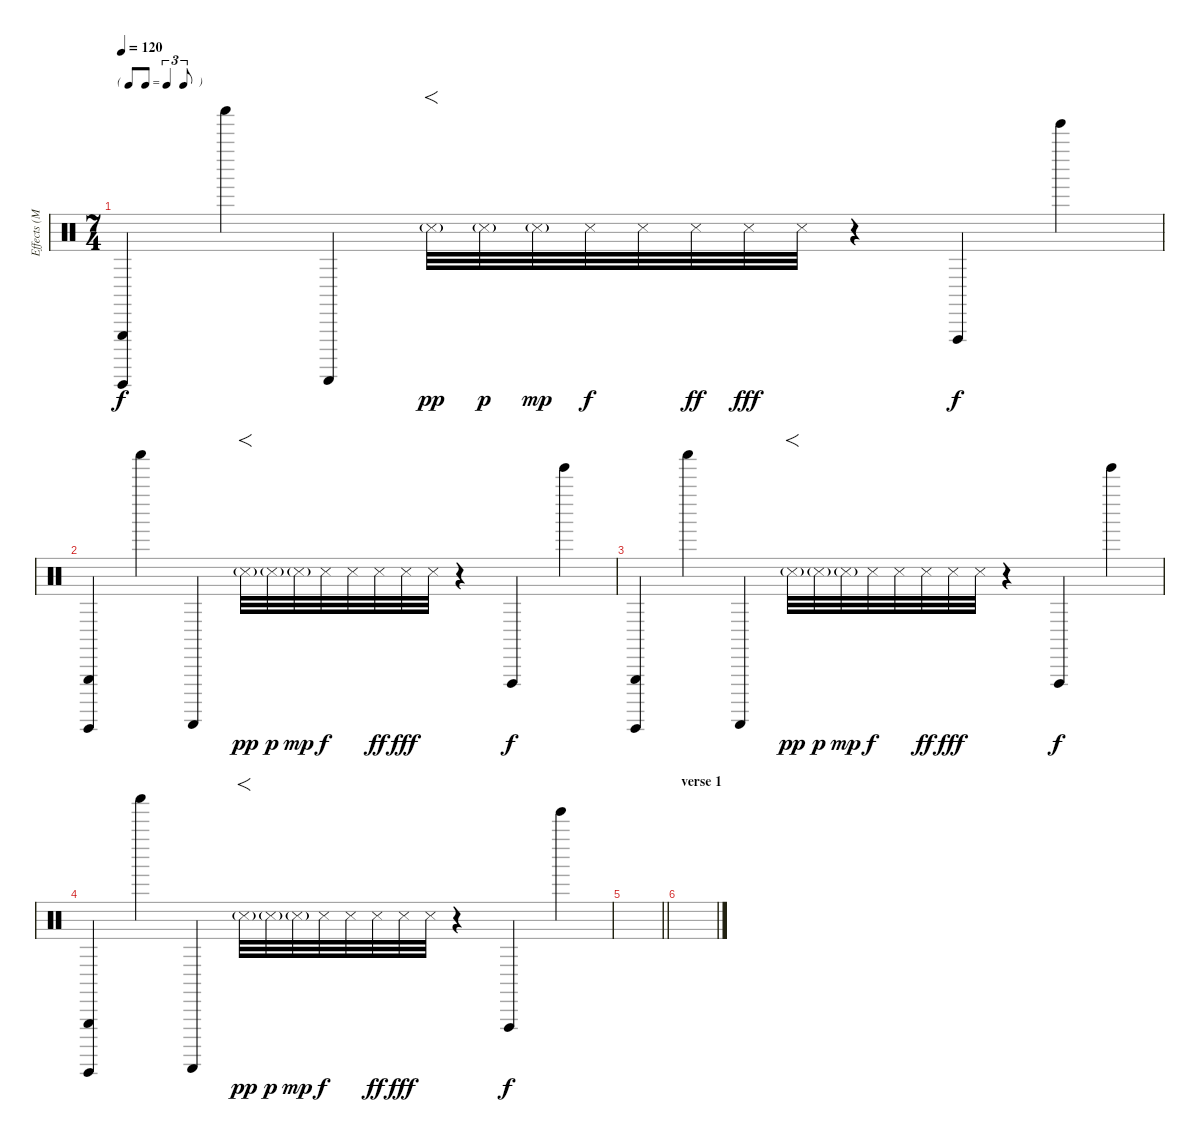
\track ("Effects (Mason/Waters)" "Effects (M") {instrument percussion}
\staff {score}
\articulation defaults
\ts (7 4)
\tf triplet8th
\tempo 120
\clef neutral
\ks c
("Triangle (hit)" "Guiro (hit)").4{dy f} "Shaker (hit)".4 "Guiro (scrap-return)".4 "Snare (side stick) 3"{g}.32{f dy pp} "Snare (side stick) 3"{g}.32{dy p} "Snare (side stick) 3"{g}.32{dy mp} "Snare (side stick) 3".32{dy f} "Snare (side stick) 3".32 "Snare (side stick) 3".32{dy ff} "Snare (side stick) 3".32{dy fff} "Snare (side stick) 3".32 r.4 "Vibraslap (hit)".4{dy f} "Tinkle Bell (hit)".4 |
("Triangle (hit)" "Guiro (hit)").4 "Shaker (hit)".4 "Guiro (scrap-return)".4 "Snare (side stick) 3"{g}.32{f dy pp} "Snare (side stick) 3"{g}.32{dy p} "Snare (side stick) 3"{g}.32{dy mp} "Snare (side stick) 3".32{dy f} "Snare (side stick) 3".32 "Snare (side stick) 3".32{dy ff} "Snare (side stick) 3".32{dy fff} "Snare (side stick) 3".32 r.4 "Vibraslap (hit)".4{dy f} "Tinkle Bell (hit)".4 |
("Triangle (hit)" "Guiro (hit)").4 "Shaker (hit)".4 "Guiro (scrap-return)".4 "Snare (side stick) 3"{g}.32{f dy pp} "Snare (side stick) 3"{g}.32{dy p} "Snare (side stick) 3"{g}.32{dy mp} "Snare (side stick) 3".32{dy f} "Snare (side stick) 3".32 "Snare (side stick) 3".32{dy ff} "Snare (side stick) 3".32{dy fff} "Snare (side stick) 3".32 r.4 "Vibraslap (hit)".4{dy f} "Tinkle Bell (hit)".4 |
("Triangle (hit)" "Guiro (hit)").4 "Shaker (hit)".4 "Guiro (scrap-return)".4 "Snare (side stick) 3"{g}.32{f dy pp} "Snare (side stick) 3"{g}.32{dy p} "Snare (side stick) 3"{g}.32{dy mp} "Snare (side stick) 3".32{dy f} "Snare (side stick) 3".32 "Snare (side stick) 3".32{dy ff} "Snare (side stick) 3".32{dy fff} "Snare (side stick) 3".32 r.4 "Vibraslap (hit)".4{dy f} "Tinkle Bell (hit)".4 |
\barLineRight lightlight
|
\section ("" "verse 1")
